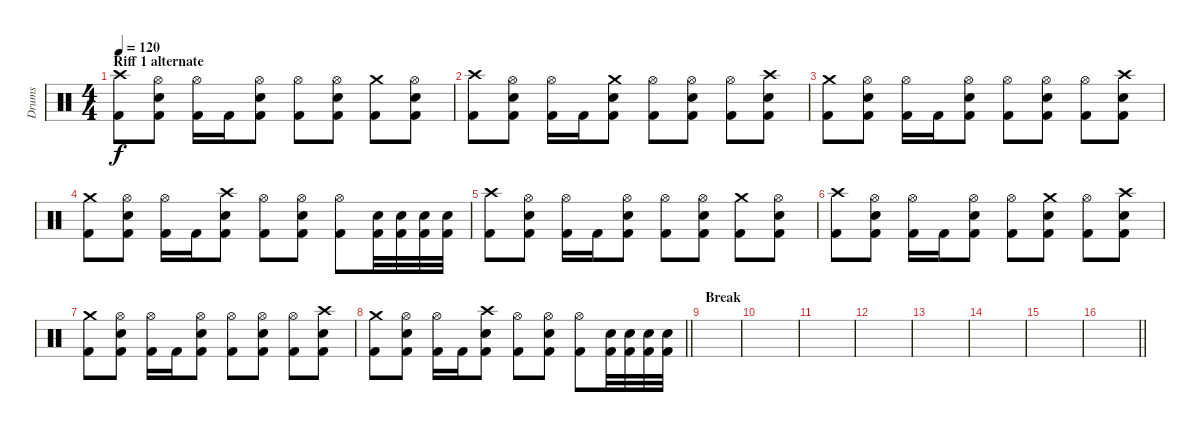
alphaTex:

\track ("Drums" "Drums") {instrument percussion}
\staff {score}
\articulation defaults
\ts (4 4)
\section ("" "Riff 1 alternate")
\tempo 120
\clef neutral
\ks c
("Crash high (hit)" "Kick (hit) 2").8{dy f} ("Hi-Hat (open)" "Electric Snare (hit)" "Kick (hit) 2").8 ("Hi-Hat (open)" "Kick (hit) 2").16 "Kick (hit) 2".16 ("Hi-Hat (open)" "Electric Snare (hit)" "Kick (hit) 2").8 ("Hi-Hat (open)" "Kick (hit) 2").8 ("Hi-Hat (open)" "Electric Snare (hit)" "Kick (hit) 2").8 ("Crash medium (hit)" "Kick (hit) 2").8 ("Hi-Hat (open)" "Electric Snare (hit)" "Kick (hit) 2").8 |
("Crash high (hit)" "Kick (hit) 2").8 ("Hi-Hat (open)" "Electric Snare (hit)" "Kick (hit) 2").8 ("Hi-Hat (open)" "Kick (hit) 2").16 "Kick (hit) 2".16 ("Crash medium (hit)" "Electric Snare (hit)" "Kick (hit) 2").8 ("Hi-Hat (open)" "Kick (hit) 2").8 ("Hi-Hat (open)" "Electric Snare (hit)" "Kick (hit) 2").8 ("Hi-Hat (open)" "Kick (hit) 2").8 ("Crash high (hit)" "Electric Snare (hit)" "Kick (hit) 2").8 |
("Crash medium (hit)" "Kick (hit) 2").8 ("Hi-Hat (open)" "Electric Snare (hit)" "Kick (hit) 2").8 ("Hi-Hat (open)" "Kick (hit) 2").16 "Kick (hit) 2".16 ("Hi-Hat (open)" "Electric Snare (hit)" "Kick (hit) 2").8 ("Hi-Hat (open)" "Kick (hit) 2").8 ("Hi-Hat (open)" "Electric Snare (hit)" "Kick (hit) 2").8 ("Hi-Hat (open)" "Kick (hit) 2").8 ("Crash high (hit)" "Electric Snare (hit)" "Kick (hit) 2").8 |
("Crash medium (hit)" "Kick (hit) 2").8 ("Hi-Hat (open)" "Electric Snare (hit)" "Kick (hit) 2").8 ("Hi-Hat (open)" "Kick (hit) 2").16 "Kick (hit) 2".16 ("Crash high (hit)" "Electric Snare (hit)" "Kick (hit) 2").8 ("Hi-Hat (open)" "Kick (hit) 2").8 ("Hi-Hat (open)" "Electric Snare (hit)" "Kick (hit) 2").8 ("Hi-Hat (open)" "Kick (hit) 2").8 ("Electric Snare (hit)" "Kick (hit) 2").32 ("Electric Snare (hit)" "Kick (hit) 2").32 ("Electric Snare (hit)" "Kick (hit) 2").32 ("Electric Snare (hit)" "Kick (hit) 2").32 |
("Crash high (hit)" "Kick (hit) 2").8 ("Hi-Hat (open)" "Electric Snare (hit)" "Kick (hit) 2").8 ("Hi-Hat (open)" "Kick (hit) 2").16 "Kick (hit) 2".16 ("Hi-Hat (open)" "Electric Snare (hit)" "Kick (hit) 2").8 ("Hi-Hat (open)" "Kick (hit) 2").8 ("Hi-Hat (open)" "Electric Snare (hit)" "Kick (hit) 2").8 ("Crash medium (hit)" "Kick (hit) 2").8 ("Hi-Hat (open)" "Electric Snare (hit)" "Kick (hit) 2").8 |
("Crash high (hit)" "Kick (hit) 2").8 ("Hi-Hat (open)" "Electric Snare (hit)" "Kick (hit) 2").8 ("Hi-Hat (open)" "Kick (hit) 2").16 "Kick (hit) 2".16 ("Hi-Hat (open)" "Electric Snare (hit)" "Kick (hit) 2").8 ("Hi-Hat (open)" "Kick (hit) 2").8 ("Crash medium (hit)" "Electric Snare (hit)" "Kick (hit) 2").8 ("Hi-Hat (open)" "Kick (hit) 2").8 ("Crash high (hit)" "Electric Snare (hit)" "Kick (hit) 2").8 |
("Crash medium (hit)" "Kick (hit) 2").8 ("Hi-Hat (open)" "Electric Snare (hit)" "Kick (hit) 2").8 ("Hi-Hat (open)" "Kick (hit) 2").16 "Kick (hit) 2".16 ("Hi-Hat (open)" "Electric Snare (hit)" "Kick (hit) 2").8 ("Hi-Hat (open)" "Kick (hit) 2").8 ("Hi-Hat (open)" "Electric Snare (hit)" "Kick (hit) 2").8 ("Hi-Hat (open)" "Kick (hit) 2").8 ("Crash high (hit)" "Electric Snare (hit)" "Kick (hit) 2").8 |
\barLineRight lightlight
("Crash medium (hit)" "Kick (hit) 2").8 ("Hi-Hat (open)" "Electric Snare (hit)" "Kick (hit) 2").8 ("Hi-Hat (open)" "Kick (hit) 2").16 "Kick (hit) 2".16 ("Crash high (hit)" "Electric Snare (hit)" "Kick (hit) 2").8 ("Hi-Hat (open)" "Kick (hit) 2").8 ("Hi-Hat (open)" "Electric Snare (hit)" "Kick (hit) 2").8 ("Hi-Hat (open)" "Kick (hit) 2").8 ("Electric Snare (hit)" "Kick (hit) 2").32 ("Electric Snare (hit)" "Kick (hit) 2").32 ("Electric Snare (hit)" "Kick (hit) 2").32 ("Electric Snare (hit)" "Kick (hit) 2").32 |
\section ("" "Break")
|
|
|
|
|
|
|
\barLineRight lightlight
